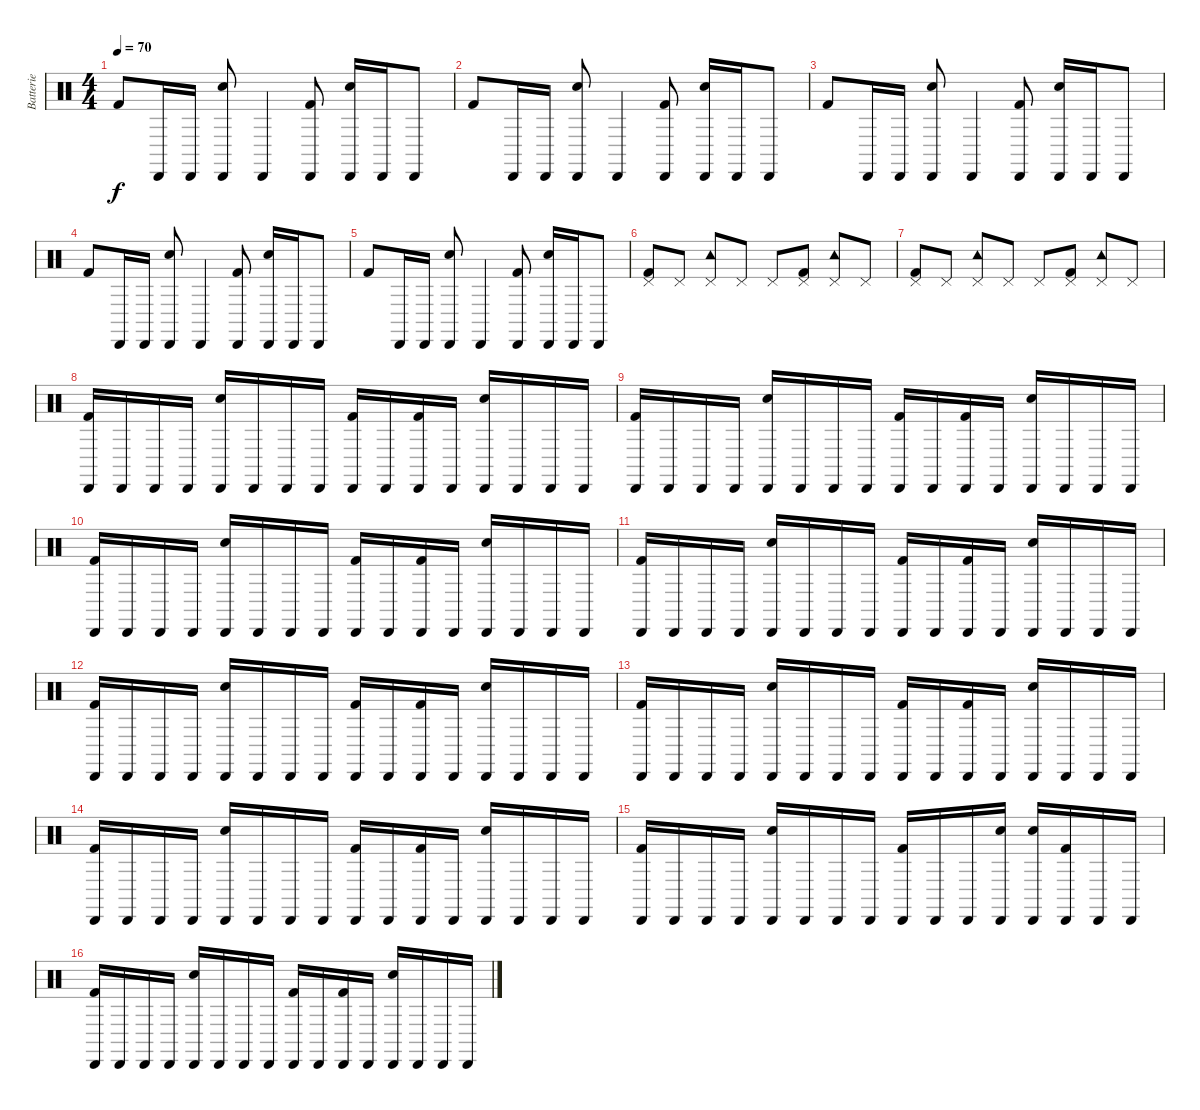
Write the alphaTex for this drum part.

\track ("Batterie" "Batterie") {instrument percussion}
\staff {score}
\articulation defaults
\ts (4 4)
\tempo 70
\clef neutral
\ks c "Kick (hit) 2".8{dy f} "Cabasa (hit)".16 "Cabasa (hit)".16
("Cabasa (hit)" "Snare (hit) 2").8 "Cabasa (hit)".4 ("Cabasa (hit)" "Kick (hit) 2").8 ("Cabasa (hit)" "Snare (hit) 2").16 "Cabasa (hit)".16 "Cabasa (hit)".8 |
"Kick (hit) 2".8 "Cabasa (hit)".16 "Cabasa (hit)".16 ("Cabasa (hit)" "Snare (hit) 2").8 "Cabasa (hit)".4 ("Cabasa (hit)" "Kick (hit) 2").8 ("Cabasa (hit)" "Snare (hit) 2").16 "Cabasa (hit)".16 "Cabasa (hit)".8 |
"Kick (hit) 2".8 "Cabasa (hit)".16 "Cabasa (hit)".16 ("Cabasa (hit)" "Snare (hit) 2").8 "Cabasa (hit)".4 ("Cabasa (hit)" "Kick (hit) 2").8 ("Cabasa (hit)" "Snare (hit) 2").16 "Cabasa (hit)".16 "Cabasa (hit)".8 |
"Kick (hit) 2".8 "Cabasa (hit)".16 "Cabasa (hit)".16 ("Cabasa (hit)" "Snare (hit) 2").8 "Cabasa (hit)".4 ("Cabasa (hit)" "Kick (hit) 2").8 ("Cabasa (hit)" "Snare (hit) 2").16 "Cabasa (hit)".16 "Cabasa (hit)".8 |
"Kick (hit) 2".8 "Cabasa (hit)".16 "Cabasa (hit)".16 ("Cabasa (hit)" "Snare (hit) 2").8 "Cabasa (hit)".4 ("Cabasa (hit)" "Kick (hit) 2").8 ("Cabasa (hit)" "Snare (hit) 2").16 "Cabasa (hit)".16 "Cabasa (hit)".8 |
("Pedal Hi-Hat (hit)" "Kick (hit) 2").8 "Pedal Hi-Hat (hit)".8 ("Tambourine (hit)" "Pedal Hi-Hat (hit)").8 "Pedal Hi-Hat (hit)".8 "Pedal Hi-Hat (hit)".8 ("Pedal Hi-Hat (hit)" "Kick (hit) 2").8 ("Tambourine (hit)" "Pedal Hi-Hat (hit)").8 "Pedal Hi-Hat (hit)".8 |
("Pedal Hi-Hat (hit)" "Kick (hit) 2").8 "Pedal Hi-Hat (hit)".8 ("Tambourine (hit)" "Pedal Hi-Hat (hit)").8 "Pedal Hi-Hat (hit)".8 "Pedal Hi-Hat (hit)".8 ("Pedal Hi-Hat (hit)" "Kick (hit) 2").8 ("Tambourine (hit)" "Pedal Hi-Hat (hit)").8 "Pedal Hi-Hat (hit)".8 |
("Cabasa (hit)" "Kick (hit) 2").16 "Cabasa (hit)".16 "Cabasa (hit)".16 "Cabasa (hit)".16 ("Cabasa (hit)" "Snare (hit) 2").16 "Cabasa (hit)".16 "Cabasa (hit)".16 "Cabasa (hit)".16 ("Cabasa (hit)" "Kick (hit) 2").16 "Cabasa (hit)".16 ("Cabasa (hit)" "Kick (hit) 2").16 "Cabasa (hit)".16 ("Cabasa (hit)" "Snare (hit) 2").16 "Cabasa (hit)".16 "Cabasa (hit)".16 "Cabasa (hit)".16 |
("Cabasa (hit)" "Kick (hit) 2").16 "Cabasa (hit)".16 "Cabasa (hit)".16 "Cabasa (hit)".16 ("Cabasa (hit)" "Snare (hit) 2").16 "Cabasa (hit)".16 "Cabasa (hit)".16 "Cabasa (hit)".16 ("Cabasa (hit)" "Kick (hit) 2").16 "Cabasa (hit)".16 ("Cabasa (hit)" "Kick (hit) 2").16 "Cabasa (hit)".16 ("Cabasa (hit)" "Snare (hit) 2").16 "Cabasa (hit)".16 "Cabasa (hit)".16 "Cabasa (hit)".16 |
("Cabasa (hit)" "Kick (hit) 2").16 "Cabasa (hit)".16 "Cabasa (hit)".16 "Cabasa (hit)".16 ("Cabasa (hit)" "Snare (hit) 2").16 "Cabasa (hit)".16 "Cabasa (hit)".16 "Cabasa (hit)".16 ("Cabasa (hit)" "Kick (hit) 2").16 "Cabasa (hit)".16 ("Cabasa (hit)" "Kick (hit) 2").16 "Cabasa (hit)".16 ("Cabasa (hit)" "Snare (hit) 2").16 "Cabasa (hit)".16 "Cabasa (hit)".16 "Cabasa (hit)".16 |
("Cabasa (hit)" "Kick (hit) 2").16 "Cabasa (hit)".16 "Cabasa (hit)".16 "Cabasa (hit)".16 ("Cabasa (hit)" "Snare (hit) 2").16 "Cabasa (hit)".16 "Cabasa (hit)".16 "Cabasa (hit)".16 ("Cabasa (hit)" "Kick (hit) 2").16 "Cabasa (hit)".16 ("Cabasa (hit)" "Kick (hit) 2").16 "Cabasa (hit)".16 ("Cabasa (hit)" "Snare (hit) 2").16 "Cabasa (hit)".16 "Cabasa (hit)".16 "Cabasa (hit)".16 |
("Cabasa (hit)" "Kick (hit) 2").16 "Cabasa (hit)".16 "Cabasa (hit)".16 "Cabasa (hit)".16 ("Cabasa (hit)" "Snare (hit) 2").16 "Cabasa (hit)".16 "Cabasa (hit)".16 "Cabasa (hit)".16 ("Cabasa (hit)" "Kick (hit) 2").16 "Cabasa (hit)".16 ("Cabasa (hit)" "Kick (hit) 2").16 "Cabasa (hit)".16 ("Cabasa (hit)" "Snare (hit) 2").16 "Cabasa (hit)".16 "Cabasa (hit)".16 "Cabasa (hit)".16 |
("Cabasa (hit)" "Kick (hit) 2").16 "Cabasa (hit)".16 "Cabasa (hit)".16 "Cabasa (hit)".16 ("Cabasa (hit)" "Snare (hit) 2").16 "Cabasa (hit)".16 "Cabasa (hit)".16 "Cabasa (hit)".16 ("Cabasa (hit)" "Kick (hit) 2").16 "Cabasa (hit)".16 ("Cabasa (hit)" "Kick (hit) 2").16 "Cabasa (hit)".16 ("Cabasa (hit)" "Snare (hit) 2").16 "Cabasa (hit)".16 "Cabasa (hit)".16 "Cabasa (hit)".16 |
("Cabasa (hit)" "Kick (hit) 2").16 "Cabasa (hit)".16 "Cabasa (hit)".16 "Cabasa (hit)".16 ("Cabasa (hit)" "Snare (hit) 2").16 "Cabasa (hit)".16 "Cabasa (hit)".16 "Cabasa (hit)".16 ("Cabasa (hit)" "Kick (hit) 2").16 "Cabasa (hit)".16 ("Cabasa (hit)" "Kick (hit) 2").16 "Cabasa (hit)".16 ("Cabasa (hit)" "Snare (hit) 2").16 "Cabasa (hit)".16 "Cabasa (hit)".16 "Cabasa (hit)".16 |
("Cabasa (hit)" "Kick (hit) 2").16 "Cabasa (hit)".16 "Cabasa (hit)".16 "Cabasa (hit)".16 ("Cabasa (hit)" "Snare (hit) 2").16 "Cabasa (hit)".16 "Cabasa (hit)".16 "Cabasa (hit)".16 ("Cabasa (hit)" "Kick (hit) 2").16 "Cabasa (hit)".16 "Cabasa (hit)".16 ("Cabasa (hit)" "Snare (hit) 2").16 ("Cabasa (hit)" "Snare (hit) 2").16 ("Cabasa (hit)" "Kick (hit) 2").16 "Cabasa (hit)".16 "Cabasa (hit)".16 |
("Cabasa (hit)" "Kick (hit) 2").16 "Cabasa (hit)".16 "Cabasa (hit)".16 "Cabasa (hit)".16 ("Cabasa (hit)" "Snare (hit) 2").16 "Cabasa (hit)".16 "Cabasa (hit)".16 "Cabasa (hit)".16 ("Cabasa (hit)" "Kick (hit) 2").16 "Cabasa (hit)".16 ("Cabasa (hit)" "Kick (hit) 2").16 "Cabasa (hit)".16 ("Cabasa (hit)" "Snare (hit) 2").16 "Cabasa (hit)".16 "Cabasa (hit)".16 "Cabasa (hit)".16
